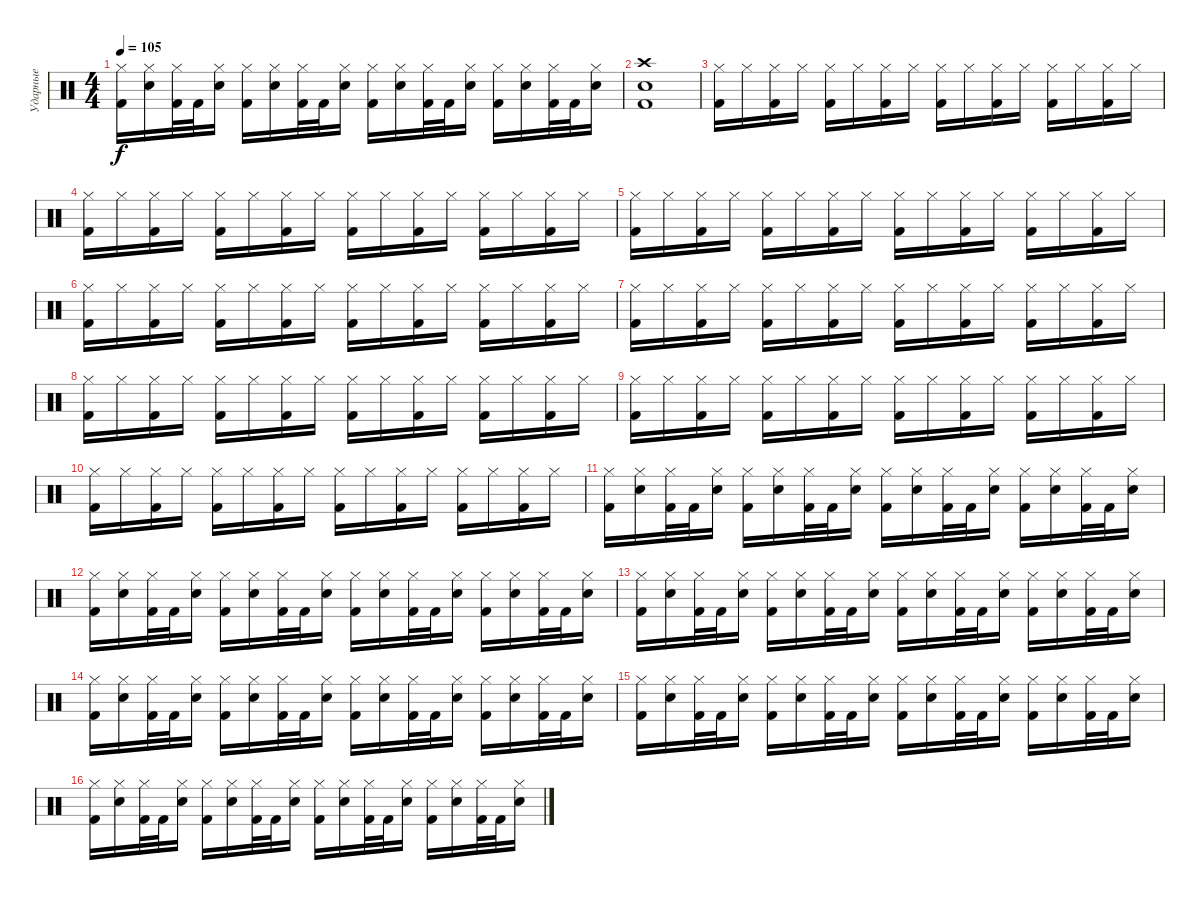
\track ("Ударные" "Ударные") {instrument percussion}
\staff {score}
\articulation defaults
\ts (4 4)
\tempo 105
\clef neutral
\ks c
("Hi-Hat (closed)" "Kick (hit) 2").16{dy f} ("Hi-Hat (closed)" "Electric Snare (hit)").16 ("Hi-Hat (closed)" "Kick (hit) 2").32 "Kick (hit) 2".32 ("Hi-Hat (closed)" "Electric Snare (hit)").16 ("Hi-Hat (closed)" "Kick (hit) 2").16 ("Hi-Hat (closed)" "Electric Snare (hit)").16 ("Hi-Hat (closed)" "Kick (hit) 2").32 "Kick (hit) 2".32 ("Hi-Hat (closed)" "Electric Snare (hit)").16 ("Hi-Hat (closed)" "Kick (hit) 2").16 ("Hi-Hat (closed)" "Electric Snare (hit)").16 ("Hi-Hat (closed)" "Kick (hit) 2").32 "Kick (hit) 2".32 ("Hi-Hat (closed)" "Electric Snare (hit)").16 ("Hi-Hat (closed)" "Kick (hit) 2").16 ("Hi-Hat (closed)" "Electric Snare (hit)").16 ("Hi-Hat (closed)" "Kick (hit) 2").32 "Kick (hit) 2".32 ("Hi-Hat (closed)" "Electric Snare (hit)").16 |
("Crash high (hit)" "Electric Snare (hit)" "Kick (hit) 2").1 |
("Hi-Hat (closed)" "Kick (hit) 2").16 "Hi-Hat (closed)".16 ("Hi-Hat (closed)" "Kick (hit) 2").16 "Hi-Hat (closed)".16 ("Hi-Hat (closed)" "Kick (hit) 2").16 "Hi-Hat (closed)".16 ("Hi-Hat (closed)" "Kick (hit) 2").16 "Hi-Hat (closed)".16 ("Hi-Hat (closed)" "Kick (hit) 2").16 "Hi-Hat (closed)".16 ("Hi-Hat (closed)" "Kick (hit) 2").16 "Hi-Hat (closed)".16 ("Hi-Hat (closed)" "Kick (hit) 2").16 "Hi-Hat (closed)".16 ("Hi-Hat (closed)" "Kick (hit) 2").16 "Hi-Hat (closed)".16 |
("Hi-Hat (closed)" "Kick (hit) 2").16 "Hi-Hat (closed)".16 ("Hi-Hat (closed)" "Kick (hit) 2").16 "Hi-Hat (closed)".16 ("Hi-Hat (closed)" "Kick (hit) 2").16 "Hi-Hat (closed)".16 ("Hi-Hat (closed)" "Kick (hit) 2").16 "Hi-Hat (closed)".16 ("Hi-Hat (closed)" "Kick (hit) 2").16 "Hi-Hat (closed)".16 ("Hi-Hat (closed)" "Kick (hit) 2").16 "Hi-Hat (closed)".16 ("Hi-Hat (closed)" "Kick (hit) 2").16 "Hi-Hat (closed)".16 ("Hi-Hat (closed)" "Kick (hit) 2").16 "Hi-Hat (closed)".16 |
("Hi-Hat (closed)" "Kick (hit) 2").16 "Hi-Hat (closed)".16 ("Hi-Hat (closed)" "Kick (hit) 2").16 "Hi-Hat (closed)".16 ("Hi-Hat (closed)" "Kick (hit) 2").16 "Hi-Hat (closed)".16 ("Hi-Hat (closed)" "Kick (hit) 2").16 "Hi-Hat (closed)".16 ("Hi-Hat (closed)" "Kick (hit) 2").16 "Hi-Hat (closed)".16 ("Hi-Hat (closed)" "Kick (hit) 2").16 "Hi-Hat (closed)".16 ("Hi-Hat (closed)" "Kick (hit) 2").16 "Hi-Hat (closed)".16 ("Hi-Hat (closed)" "Kick (hit) 2").16 "Hi-Hat (closed)".16 |
("Hi-Hat (closed)" "Kick (hit) 2").16 "Hi-Hat (closed)".16 ("Hi-Hat (closed)" "Kick (hit) 2").16 "Hi-Hat (closed)".16 ("Hi-Hat (closed)" "Kick (hit) 2").16 "Hi-Hat (closed)".16 ("Hi-Hat (closed)" "Kick (hit) 2").16 "Hi-Hat (closed)".16 ("Hi-Hat (closed)" "Kick (hit) 2").16 "Hi-Hat (closed)".16 ("Hi-Hat (closed)" "Kick (hit) 2").16 "Hi-Hat (closed)".16 ("Hi-Hat (closed)" "Kick (hit) 2").16 "Hi-Hat (closed)".16 ("Hi-Hat (closed)" "Kick (hit) 2").16 "Hi-Hat (closed)".16 |
("Hi-Hat (closed)" "Kick (hit) 2").16 "Hi-Hat (closed)".16 ("Hi-Hat (closed)" "Kick (hit) 2").16 "Hi-Hat (closed)".16 ("Hi-Hat (closed)" "Kick (hit) 2").16 "Hi-Hat (closed)".16 ("Hi-Hat (closed)" "Kick (hit) 2").16 "Hi-Hat (closed)".16 ("Hi-Hat (closed)" "Kick (hit) 2").16 "Hi-Hat (closed)".16 ("Hi-Hat (closed)" "Kick (hit) 2").16 "Hi-Hat (closed)".16 ("Hi-Hat (closed)" "Kick (hit) 2").16 "Hi-Hat (closed)".16 ("Hi-Hat (closed)" "Kick (hit) 2").16 "Hi-Hat (closed)".16 |
("Hi-Hat (closed)" "Kick (hit) 2").16 "Hi-Hat (closed)".16 ("Hi-Hat (closed)" "Kick (hit) 2").16 "Hi-Hat (closed)".16 ("Hi-Hat (closed)" "Kick (hit) 2").16 "Hi-Hat (closed)".16 ("Hi-Hat (closed)" "Kick (hit) 2").16 "Hi-Hat (closed)".16 ("Hi-Hat (closed)" "Kick (hit) 2").16 "Hi-Hat (closed)".16 ("Hi-Hat (closed)" "Kick (hit) 2").16 "Hi-Hat (closed)".16 ("Hi-Hat (closed)" "Kick (hit) 2").16 "Hi-Hat (closed)".16 ("Hi-Hat (closed)" "Kick (hit) 2").16 "Hi-Hat (closed)".16 |
("Hi-Hat (closed)" "Kick (hit) 2").16 "Hi-Hat (closed)".16 ("Hi-Hat (closed)" "Kick (hit) 2").16 "Hi-Hat (closed)".16 ("Hi-Hat (closed)" "Kick (hit) 2").16 "Hi-Hat (closed)".16 ("Hi-Hat (closed)" "Kick (hit) 2").16 "Hi-Hat (closed)".16 ("Hi-Hat (closed)" "Kick (hit) 2").16 "Hi-Hat (closed)".16 ("Hi-Hat (closed)" "Kick (hit) 2").16 "Hi-Hat (closed)".16 ("Hi-Hat (closed)" "Kick (hit) 2").16 "Hi-Hat (closed)".16 ("Hi-Hat (closed)" "Kick (hit) 2").16 "Hi-Hat (closed)".16 |
("Hi-Hat (closed)" "Kick (hit) 2").16 "Hi-Hat (closed)".16 ("Hi-Hat (closed)" "Kick (hit) 2").16 "Hi-Hat (closed)".16 ("Hi-Hat (closed)" "Kick (hit) 2").16 "Hi-Hat (closed)".16 ("Hi-Hat (closed)" "Kick (hit) 2").16 "Hi-Hat (closed)".16 ("Hi-Hat (closed)" "Kick (hit) 2").16 "Hi-Hat (closed)".16 ("Hi-Hat (closed)" "Kick (hit) 2").16 "Hi-Hat (closed)".16 ("Hi-Hat (closed)" "Kick (hit) 2").16 "Hi-Hat (closed)".16 ("Hi-Hat (closed)" "Kick (hit) 2").16 "Hi-Hat (closed)".16 |
("Hi-Hat (closed)" "Kick (hit) 2").16 ("Hi-Hat (closed)" "Electric Snare (hit)").16 ("Hi-Hat (closed)" "Kick (hit) 2").32 "Kick (hit) 2".32 ("Hi-Hat (closed)" "Electric Snare (hit)").16 ("Hi-Hat (closed)" "Kick (hit) 2").16 ("Hi-Hat (closed)" "Electric Snare (hit)").16 ("Hi-Hat (closed)" "Kick (hit) 2").32 "Kick (hit) 2".32 ("Hi-Hat (closed)" "Electric Snare (hit)").16 ("Hi-Hat (closed)" "Kick (hit) 2").16 ("Hi-Hat (closed)" "Electric Snare (hit)").16 ("Hi-Hat (closed)" "Kick (hit) 2").32 "Kick (hit) 2".32 ("Hi-Hat (closed)" "Electric Snare (hit)").16 ("Hi-Hat (closed)" "Kick (hit) 2").16 ("Hi-Hat (closed)" "Electric Snare (hit)").16 ("Hi-Hat (closed)" "Kick (hit) 2").32 "Kick (hit) 2".32 ("Hi-Hat (closed)" "Electric Snare (hit)").16 |
("Hi-Hat (closed)" "Kick (hit) 2").16 ("Hi-Hat (closed)" "Electric Snare (hit)").16 ("Hi-Hat (closed)" "Kick (hit) 2").32 "Kick (hit) 2".32 ("Hi-Hat (closed)" "Electric Snare (hit)").16 ("Hi-Hat (closed)" "Kick (hit) 2").16 ("Hi-Hat (closed)" "Electric Snare (hit)").16 ("Hi-Hat (closed)" "Kick (hit) 2").32 "Kick (hit) 2".32 ("Hi-Hat (closed)" "Electric Snare (hit)").16 ("Hi-Hat (closed)" "Kick (hit) 2").16 ("Hi-Hat (closed)" "Electric Snare (hit)").16 ("Hi-Hat (closed)" "Kick (hit) 2").32 "Kick (hit) 2".32 ("Hi-Hat (closed)" "Electric Snare (hit)").16 ("Hi-Hat (closed)" "Kick (hit) 2").16 ("Hi-Hat (closed)" "Electric Snare (hit)").16 ("Hi-Hat (closed)" "Kick (hit) 2").32 "Kick (hit) 2".32 ("Hi-Hat (closed)" "Electric Snare (hit)").16 |
("Hi-Hat (closed)" "Kick (hit) 2").16 ("Hi-Hat (closed)" "Electric Snare (hit)").16 ("Hi-Hat (closed)" "Kick (hit) 2").32 "Kick (hit) 2".32 ("Hi-Hat (closed)" "Electric Snare (hit)").16 ("Hi-Hat (closed)" "Kick (hit) 2").16 ("Hi-Hat (closed)" "Electric Snare (hit)").16 ("Hi-Hat (closed)" "Kick (hit) 2").32 "Kick (hit) 2".32 ("Hi-Hat (closed)" "Electric Snare (hit)").16 ("Hi-Hat (closed)" "Kick (hit) 2").16 ("Hi-Hat (closed)" "Electric Snare (hit)").16 ("Hi-Hat (closed)" "Kick (hit) 2").32 "Kick (hit) 2".32 ("Hi-Hat (closed)" "Electric Snare (hit)").16 ("Hi-Hat (closed)" "Kick (hit) 2").16 ("Hi-Hat (closed)" "Electric Snare (hit)").16 ("Hi-Hat (closed)" "Kick (hit) 2").32 "Kick (hit) 2".32 ("Hi-Hat (closed)" "Electric Snare (hit)").16 |
("Hi-Hat (closed)" "Kick (hit) 2").16 ("Hi-Hat (closed)" "Electric Snare (hit)").16 ("Hi-Hat (closed)" "Kick (hit) 2").32 "Kick (hit) 2".32 ("Hi-Hat (closed)" "Electric Snare (hit)").16 ("Hi-Hat (closed)" "Kick (hit) 2").16 ("Hi-Hat (closed)" "Electric Snare (hit)").16 ("Hi-Hat (closed)" "Kick (hit) 2").32 "Kick (hit) 2".32 ("Hi-Hat (closed)" "Electric Snare (hit)").16 ("Hi-Hat (closed)" "Kick (hit) 2").16 ("Hi-Hat (closed)" "Electric Snare (hit)").16 ("Hi-Hat (closed)" "Kick (hit) 2").32 "Kick (hit) 2".32 ("Hi-Hat (closed)" "Electric Snare (hit)").16 ("Hi-Hat (closed)" "Kick (hit) 2").16 ("Hi-Hat (closed)" "Electric Snare (hit)").16 ("Hi-Hat (closed)" "Kick (hit) 2").32 "Kick (hit) 2".32 ("Hi-Hat (closed)" "Electric Snare (hit)").16 |
("Hi-Hat (closed)" "Kick (hit) 2").16 ("Hi-Hat (closed)" "Electric Snare (hit)").16 ("Hi-Hat (closed)" "Kick (hit) 2").32 "Kick (hit) 2".32 ("Hi-Hat (closed)" "Electric Snare (hit)").16 ("Hi-Hat (closed)" "Kick (hit) 2").16 ("Hi-Hat (closed)" "Electric Snare (hit)").16 ("Hi-Hat (closed)" "Kick (hit) 2").32 "Kick (hit) 2".32 ("Hi-Hat (closed)" "Electric Snare (hit)").16 ("Hi-Hat (closed)" "Kick (hit) 2").16 ("Hi-Hat (closed)" "Electric Snare (hit)").16 ("Hi-Hat (closed)" "Kick (hit) 2").32 "Kick (hit) 2".32 ("Hi-Hat (closed)" "Electric Snare (hit)").16 ("Hi-Hat (closed)" "Kick (hit) 2").16 ("Hi-Hat (closed)" "Electric Snare (hit)").16 ("Hi-Hat (closed)" "Kick (hit) 2").32 "Kick (hit) 2".32 ("Hi-Hat (closed)" "Electric Snare (hit)").16 |
("Hi-Hat (closed)" "Kick (hit) 2").16 ("Hi-Hat (closed)" "Electric Snare (hit)").16 ("Hi-Hat (closed)" "Kick (hit) 2").32 "Kick (hit) 2".32 ("Hi-Hat (closed)" "Electric Snare (hit)").16 ("Hi-Hat (closed)" "Kick (hit) 2").16 ("Hi-Hat (closed)" "Electric Snare (hit)").16 ("Hi-Hat (closed)" "Kick (hit) 2").32 "Kick (hit) 2".32 ("Hi-Hat (closed)" "Electric Snare (hit)").16 ("Hi-Hat (closed)" "Kick (hit) 2").16 ("Hi-Hat (closed)" "Electric Snare (hit)").16 ("Hi-Hat (closed)" "Kick (hit) 2").32 "Kick (hit) 2".32 ("Hi-Hat (closed)" "Electric Snare (hit)").16 ("Hi-Hat (closed)" "Kick (hit) 2").16 ("Hi-Hat (closed)" "Electric Snare (hit)").16 ("Hi-Hat (closed)" "Kick (hit) 2").32 "Kick (hit) 2".32 ("Hi-Hat (closed)" "Electric Snare (hit)").16
